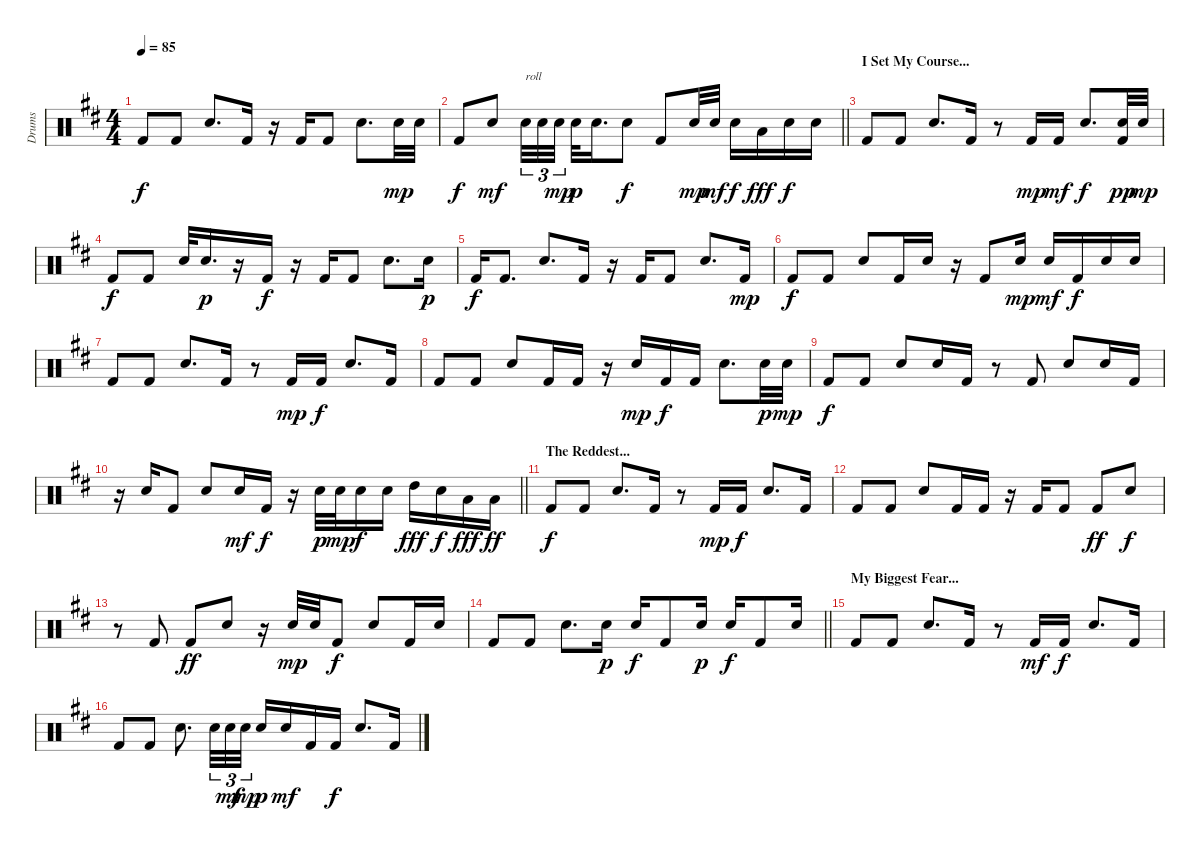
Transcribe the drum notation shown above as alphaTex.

\track ("Drums" "Drums") {instrument percussion}
\staff {score}
\articulation defaults
\ts (4 4)
\tempo 85
\clef neutral
\ks bminor "Kick (hit) 2".8{dy f} "Kick (hit) 2".8 "Electric Snare (hit)".8{d} "Kick (hit) 2".16
r.16 "Kick (hit) 2".16 "Kick (hit) 2".8 "Electric Snare (hit)".8{d} "Electric Snare (hit)".32{dy mp} "Electric Snare (hit)".32 |
\barLineRight lightlight "Kick (hit) 2".8{dy f} "Electric Snare (hit)".8{dy mf} "Electric Snare (hit)".32{tu (3 2) txt "roll"} "Electric Snare (hit)".32{tu (3 2)} "Electric Snare (hit)".32{tu (3 2) dy mp beam splitsecondary} "Electric Snare (hit)".32{dy p} "Electric Snare (hit)".16{d} "Electric Snare (hit)".8{dy f} "Kick (hit) 2".8 "Electric Snare (hit)".32{dy mp} "Electric Snare (hit)".32{dy mf} "Electric Snare (hit)".16{dy f} "Low Tom (hit)".16{dy fff} "Electric Snare (hit)".16{dy f} "Electric Snare (hit)".16
|
\section ("" "I Set My Course...")
"Kick (hit) 2".8 "Kick (hit) 2".8 "Electric Snare (hit)".8{d} "Kick (hit) 2".16 r.8 "Kick (hit) 2".16{dy mp} "Kick (hit) 2".16{dy mf} "Electric Snare (hit)".8{d dy f} ("Electric Snare (hit)" "Kick (hit) 2").32{dy pp} "Electric Snare (hit)".32{dy mp} |
"Kick (hit) 2".8{dy f} "Kick (hit) 2".8 "Electric Snare (hit)".32 "Electric Snare (hit)".16{d dy p} r.16 "Kick (hit) 2".16{dy f} r.16 "Kick (hit) 2".16 "Kick (hit) 2".8 "Electric Snare (hit)".8{d} "Electric Snare (hit)".16{dy p} |
"Kick (hit) 2".16{dy f} "Kick (hit) 2".8{d} "Electric Snare (hit)".8{d} "Kick (hit) 2".16 r.16 "Kick (hit) 2".16 "Kick (hit) 2".8 "Electric Snare (hit)".8{d} "Kick (hit) 2".16{dy mp} |
"Kick (hit) 2".8{dy f} "Kick (hit) 2".8 "Electric Snare (hit)".8 "Kick (hit) 2".16 "Electric Snare (hit)".16 r.16 "Kick (hit) 2".8 "Electric Snare (hit)".16{dy mp} "Electric Snare (hit)".16{dy mf} "Kick (hit) 2".16{dy f} "Electric Snare (hit)".16 "Electric Snare (hit)".16 |
"Kick (hit) 2".8 "Kick (hit) 2".8 "Electric Snare (hit)".8{d} "Kick (hit) 2".16 r.8 "Kick (hit) 2".16{dy mp} "Kick (hit) 2".16{dy f} "Electric Snare (hit)".8{d} "Kick (hit) 2".16 |
"Kick (hit) 2".8 "Kick (hit) 2".8 "Electric Snare (hit)".8 "Kick (hit) 2".16 "Kick (hit) 2".16 r.16 "Electric Snare (hit)".16{dy mp} "Kick (hit) 2".16{dy f} "Kick (hit) 2".16 "Electric Snare (hit)".8{d} "Electric Snare (hit)".32{dy p} "Electric Snare (hit)".32{dy mp} |
"Kick (hit) 2".8{dy f} "Kick (hit) 2".8 "Electric Snare (hit)".8 "Electric Snare (hit)".16 "Kick (hit) 2".16 r.8 "Kick (hit) 2".8 "Electric Snare (hit)".8 "Electric Snare (hit)".16 "Kick (hit) 2".16 |
\barLineRight lightlight
r.16 "Electric Snare (hit)".16 "Kick (hit) 2".8 "Electric Snare (hit)".8 "Electric Snare (hit)".16{dy mf} "Kick (hit) 2".16{dy f} r.16 "Electric Snare (hit)".32{dy p} "Electric Snare (hit)".32{dy mp} "Electric Snare (hit)".16{dy f} "Electric Snare (hit)".16 "High Tom (hit)".16{dy fff} "Electric Snare (hit)".16{dy f} "Low Tom (hit)".16{dy fff} "Low Tom (hit)".16{dy ff} |
\section ("" "The Reddest...")
"Kick (hit) 2".8{dy f} "Kick (hit) 2".8 "Electric Snare (hit)".8{d} "Kick (hit) 2".16 r.8 "Kick (hit) 2".16{dy mp} "Kick (hit) 2".16{dy f} "Electric Snare (hit)".8{d} "Kick (hit) 2".16 |
"Kick (hit) 2".8 "Kick (hit) 2".8 "Electric Snare (hit)".8 "Kick (hit) 2".16 "Kick (hit) 2".16 r.16 "Kick (hit) 2".16 "Kick (hit) 2".8 "Kick (hit) 2".8{dy ff} "Electric Snare (hit)".8{dy f} |
r.8 "Kick (hit) 2".8 "Kick (hit) 2".8{dy ff} "Electric Snare (hit)".8 r.16 "Electric Snare (hit)".32{dy mp} "Electric Snare (hit)".32 "Kick (hit) 2".8{dy f} "Electric Snare (hit)".8 "Kick (hit) 2".16 "Electric Snare (hit)".16 |
\barLineRight lightlight "Kick (hit) 2".8 "Kick (hit) 2".8 "Electric Snare (hit)".8{d} "Electric Snare (hit)".16{dy p} "Electric Snare (hit)".16{dy f} "Kick (hit) 2".8 "Electric Snare (hit)".16{dy p} "Electric Snare (hit)".16{dy f} "Kick (hit) 2".8 "Electric Snare (hit)".16
|
\section ("" "My Biggest Fear...")
"Kick (hit) 2".8 "Kick (hit) 2".8 "Electric Snare (hit)".8{d} "Kick (hit) 2".16 r.8 "Kick (hit) 2".16{dy mf} "Kick (hit) 2".16{dy f} "Electric Snare (hit)".8{d} "Kick (hit) 2".16 |
"Kick (hit) 2".8 "Kick (hit) 2".8 "Electric Snare (hit)".8{d} "Electric Snare (hit)".32{tu (3 2)} "Electric Snare (hit)".32{tu (3 2) dy mf} "Electric Snare (hit)".32{tu (3 2) dy mp} "Electric Snare (hit)".16{dy p} "Electric Snare (hit)".16{dy mf} "Kick (hit) 2".16 "Kick (hit) 2".16{dy f} "Electric Snare (hit)".8{d} "Kick (hit) 2".16
